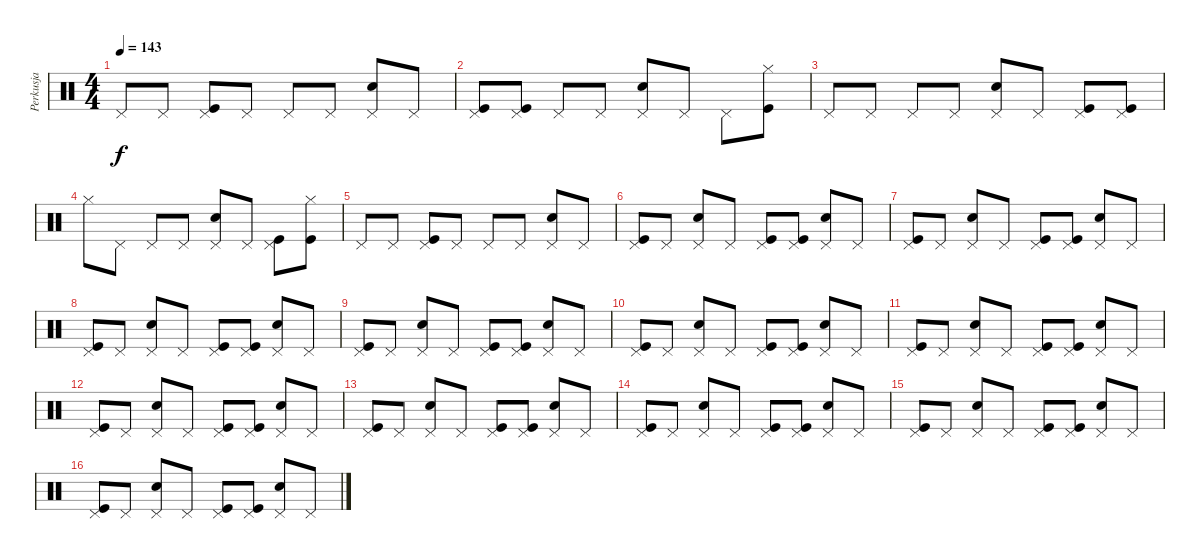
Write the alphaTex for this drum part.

\track ("Perkusja" "Perkusja") {instrument percussion}
\staff {score}
\articulation defaults
\ts (4 4)
\tempo 143
\clef neutral
\ks c "Pedal Hi-Hat (hit)".8{dy f} "Pedal Hi-Hat (hit)".8
("Pedal Hi-Hat (hit)" "Kick (hit)").8 "Pedal Hi-Hat (hit)".8 "Pedal Hi-Hat (hit)".8 "Pedal Hi-Hat (hit)".8 ("Pedal Hi-Hat (hit)" "Snare (hit) 2").8 "Pedal Hi-Hat (hit)".8 |
("Pedal Hi-Hat (hit)" "Kick (hit)").8 ("Pedal Hi-Hat (hit)" "Kick (hit)").8 "Pedal Hi-Hat (hit)".8 "Pedal Hi-Hat (hit)".8 ("Pedal Hi-Hat (hit)" "Snare (hit) 2").8 "Pedal Hi-Hat (hit)".8 "Pedal Hi-Hat (hit)".8 ("Hi-Hat (closed)" "Kick (hit)").8 |
"Pedal Hi-Hat (hit)".8 "Pedal Hi-Hat (hit)".8 "Pedal Hi-Hat (hit)".8 "Pedal Hi-Hat (hit)".8 ("Pedal Hi-Hat (hit)" "Snare (hit) 2").8 "Pedal Hi-Hat (hit)".8 ("Pedal Hi-Hat (hit)" "Kick (hit)").8 ("Pedal Hi-Hat (hit)" "Kick (hit)").8 |
"Hi-Hat (closed)".8 "Pedal Hi-Hat (hit)".8 "Pedal Hi-Hat (hit)".8 "Pedal Hi-Hat (hit)".8 ("Pedal Hi-Hat (hit)" "Snare (hit) 2").8 "Pedal Hi-Hat (hit)".8 ("Pedal Hi-Hat (hit)" "Kick (hit)").8 ("Hi-Hat (closed)" "Kick (hit)").8 |
"Pedal Hi-Hat (hit)".8 "Pedal Hi-Hat (hit)".8 ("Pedal Hi-Hat (hit)" "Kick (hit)").8 "Pedal Hi-Hat (hit)".8 "Pedal Hi-Hat (hit)".8 "Pedal Hi-Hat (hit)".8 ("Pedal Hi-Hat (hit)" "Snare (hit) 2").8 "Pedal Hi-Hat (hit)".8 |
("Pedal Hi-Hat (hit)" "Kick (hit)").8 "Pedal Hi-Hat (hit)".8 ("Pedal Hi-Hat (hit)" "Snare (hit) 2").8 "Pedal Hi-Hat (hit)".8 ("Pedal Hi-Hat (hit)" "Kick (hit)").8 ("Pedal Hi-Hat (hit)" "Kick (hit)").8 ("Pedal Hi-Hat (hit)" "Snare (hit) 2").8 "Pedal Hi-Hat (hit)".8 |
("Pedal Hi-Hat (hit)" "Kick (hit)").8 "Pedal Hi-Hat (hit)".8 ("Pedal Hi-Hat (hit)" "Snare (hit) 2").8 "Pedal Hi-Hat (hit)".8 ("Pedal Hi-Hat (hit)" "Kick (hit)").8 ("Pedal Hi-Hat (hit)" "Kick (hit)").8 ("Pedal Hi-Hat (hit)" "Snare (hit) 2").8 "Pedal Hi-Hat (hit)".8 |
("Pedal Hi-Hat (hit)" "Kick (hit)").8 "Pedal Hi-Hat (hit)".8 ("Pedal Hi-Hat (hit)" "Snare (hit) 2").8 "Pedal Hi-Hat (hit)".8 ("Pedal Hi-Hat (hit)" "Kick (hit)").8 ("Pedal Hi-Hat (hit)" "Kick (hit)").8 ("Pedal Hi-Hat (hit)" "Snare (hit) 2").8 "Pedal Hi-Hat (hit)".8 |
("Pedal Hi-Hat (hit)" "Kick (hit)").8 "Pedal Hi-Hat (hit)".8 ("Pedal Hi-Hat (hit)" "Snare (hit) 2").8 "Pedal Hi-Hat (hit)".8 ("Pedal Hi-Hat (hit)" "Kick (hit)").8 ("Pedal Hi-Hat (hit)" "Kick (hit)").8 ("Pedal Hi-Hat (hit)" "Snare (hit) 2").8 "Pedal Hi-Hat (hit)".8 |
("Pedal Hi-Hat (hit)" "Kick (hit)").8 "Pedal Hi-Hat (hit)".8 ("Pedal Hi-Hat (hit)" "Snare (hit) 2").8 "Pedal Hi-Hat (hit)".8 ("Pedal Hi-Hat (hit)" "Kick (hit)").8 ("Pedal Hi-Hat (hit)" "Kick (hit)").8 ("Pedal Hi-Hat (hit)" "Snare (hit) 2").8 "Pedal Hi-Hat (hit)".8 |
("Pedal Hi-Hat (hit)" "Kick (hit)").8 "Pedal Hi-Hat (hit)".8 ("Pedal Hi-Hat (hit)" "Snare (hit) 2").8 "Pedal Hi-Hat (hit)".8 ("Pedal Hi-Hat (hit)" "Kick (hit)").8 ("Pedal Hi-Hat (hit)" "Kick (hit)").8 ("Pedal Hi-Hat (hit)" "Snare (hit) 2").8 "Pedal Hi-Hat (hit)".8 |
("Pedal Hi-Hat (hit)" "Kick (hit)").8 "Pedal Hi-Hat (hit)".8 ("Pedal Hi-Hat (hit)" "Snare (hit) 2").8 "Pedal Hi-Hat (hit)".8 ("Pedal Hi-Hat (hit)" "Kick (hit)").8 ("Pedal Hi-Hat (hit)" "Kick (hit)").8 ("Pedal Hi-Hat (hit)" "Snare (hit) 2").8 "Pedal Hi-Hat (hit)".8 |
("Pedal Hi-Hat (hit)" "Kick (hit)").8 "Pedal Hi-Hat (hit)".8 ("Pedal Hi-Hat (hit)" "Snare (hit) 2").8 "Pedal Hi-Hat (hit)".8 ("Pedal Hi-Hat (hit)" "Kick (hit)").8 ("Pedal Hi-Hat (hit)" "Kick (hit)").8 ("Pedal Hi-Hat (hit)" "Snare (hit) 2").8 "Pedal Hi-Hat (hit)".8 |
("Pedal Hi-Hat (hit)" "Kick (hit)").8 "Pedal Hi-Hat (hit)".8 ("Pedal Hi-Hat (hit)" "Snare (hit) 2").8 "Pedal Hi-Hat (hit)".8 ("Pedal Hi-Hat (hit)" "Kick (hit)").8 ("Pedal Hi-Hat (hit)" "Kick (hit)").8 ("Pedal Hi-Hat (hit)" "Snare (hit) 2").8 "Pedal Hi-Hat (hit)".8 |
("Pedal Hi-Hat (hit)" "Kick (hit)").8 "Pedal Hi-Hat (hit)".8 ("Pedal Hi-Hat (hit)" "Snare (hit) 2").8 "Pedal Hi-Hat (hit)".8 ("Pedal Hi-Hat (hit)" "Kick (hit)").8 ("Pedal Hi-Hat (hit)" "Kick (hit)").8 ("Pedal Hi-Hat (hit)" "Snare (hit) 2").8 "Pedal Hi-Hat (hit)".8 |
("Pedal Hi-Hat (hit)" "Kick (hit)").8 "Pedal Hi-Hat (hit)".8 ("Pedal Hi-Hat (hit)" "Snare (hit) 2").8 "Pedal Hi-Hat (hit)".8 ("Pedal Hi-Hat (hit)" "Kick (hit)").8 ("Pedal Hi-Hat (hit)" "Kick (hit)").8 ("Pedal Hi-Hat (hit)" "Snare (hit) 2").8 "Pedal Hi-Hat (hit)".8
